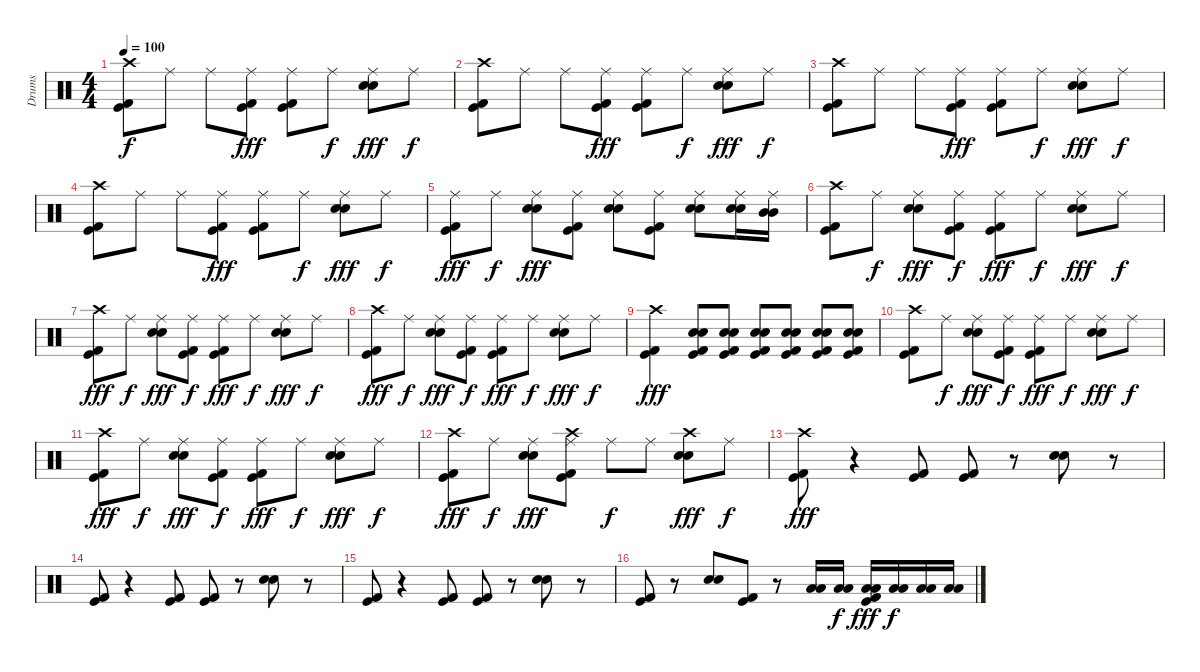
\track ("Drums" "Drums") {instrument percussion}
\staff {score}
\articulation defaults
\ts (4 4)
\tempo 100
\clef neutral
\ks c
("Crash high (hit)" "Kick (hit) 2" "Kick (hit)").8{dy f} "Ride (middle)".8 "Ride (middle)".8 ("Ride (middle)" "Kick (hit) 2" "Kick (hit)").8{dy fff} ("Ride (middle)" "Kick (hit) 2" "Kick (hit)").8 "Ride (middle)".8{dy f} ("Ride (middle)" "Electric Snare (hit)" "Snare (hit) 2").8{dy fff} "Ride (middle)".8{dy f} |
("Crash high (hit)" "Kick (hit) 2" "Kick (hit)").8 "Ride (middle)".8 "Ride (middle)".8 ("Ride (middle)" "Kick (hit) 2" "Kick (hit)").8{dy fff} ("Ride (middle)" "Kick (hit) 2" "Kick (hit)").8 "Ride (middle)".8{dy f} ("Ride (middle)" "Electric Snare (hit)" "Snare (hit) 2").8{dy fff} "Ride (middle)".8{dy f} |
("Crash high (hit)" "Kick (hit) 2" "Kick (hit)").8 "Ride (middle)".8 "Ride (middle)".8 ("Ride (middle)" "Kick (hit) 2" "Kick (hit)").8{dy fff} ("Ride (middle)" "Kick (hit) 2" "Kick (hit)").8 "Ride (middle)".8{dy f} ("Ride (middle)" "Electric Snare (hit)" "Snare (hit) 2").8{dy fff} "Ride (middle)".8{dy f} |
("Crash high (hit)" "Kick (hit) 2" "Kick (hit)").8 "Ride (middle)".8 "Ride (middle)".8 ("Ride (middle)" "Kick (hit) 2" "Kick (hit)").8{dy fff} ("Ride (middle)" "Kick (hit) 2" "Kick (hit)").8 "Ride (middle)".8{dy f} ("Ride (middle)" "Electric Snare (hit)" "Snare (hit) 2").8{dy fff} "Ride (middle)".8{dy f} |
("Ride (middle)" "Kick (hit) 2" "Kick (hit)").8{dy fff} "Ride (middle)".8{dy f} ("Ride (middle)" "Electric Snare (hit)" "Snare (hit) 2").8{dy fff} ("Ride (middle)" "Kick (hit) 2" "Kick (hit)").8 ("Ride (middle)" "Electric Snare (hit)" "Electric Snare (hit)").8 ("Ride (middle)" "Kick (hit) 2" "Kick (hit)").8 ("Ride (middle)" "Electric Snare (hit)" "Snare (hit) 2").8 ("Ride (middle)" "Electric Snare (hit)" "Snare (hit) 2").16 ("Ride (middle)" "Mid Tom (hit)" "Mid Tom (hit)").16 |
("Crash high (hit)" "Kick (hit) 2" "Kick (hit)").8 "Ride (middle)".8{dy f} ("Ride (middle)" "Electric Snare (hit)" "Snare (hit) 2").8{dy fff} ("Ride (middle)" "Kick (hit) 2" "Kick (hit)").8{dy f} ("Ride (middle)" "Kick (hit) 2" "Kick (hit)").8{dy fff} "Ride (middle)".8{dy f} ("Ride (middle)" "Electric Snare (hit)" "Snare (hit) 2").8{dy fff} "Ride (middle)".8{dy f} |
("Crash high (hit)" "Kick (hit) 2" "Kick (hit)").8{dy fff} "Ride (middle)".8{dy f} ("Ride (middle)" "Electric Snare (hit)" "Snare (hit) 2").8{dy fff} ("Ride (middle)" "Kick (hit) 2" "Kick (hit)").8{dy f} ("Ride (middle)" "Kick (hit) 2" "Kick (hit)").8{dy fff} "Ride (middle)".8{dy f} ("Ride (middle)" "Electric Snare (hit)" "Snare (hit) 2").8{dy fff} "Ride (middle)".8{dy f} |
("Crash high (hit)" "Kick (hit) 2" "Kick (hit)").8{dy fff} "Ride (middle)".8{dy f} ("Ride (middle)" "Electric Snare (hit)" "Snare (hit) 2").8{dy fff} ("Ride (middle)" "Kick (hit) 2" "Kick (hit)").8{dy f} ("Ride (middle)" "Kick (hit) 2" "Kick (hit)").8{dy fff} "Ride (middle)".8{dy f} ("Ride (middle)" "Electric Snare (hit)" "Snare (hit) 2").8{dy fff} "Ride (middle)".8{dy f} |
("Crash high (hit)" "Kick (hit) 2" "Kick (hit)").4{dy fff} ("Electric Snare (hit)" "Snare (hit) 2" "Kick (hit) 2" "Kick (hit)").8 ("Electric Snare (hit)" "Snare (hit) 2" "Kick (hit) 2" "Kick (hit)").8 ("Electric Snare (hit)" "Snare (hit) 2" "Kick (hit) 2" "Kick (hit)").8 ("Electric Snare (hit)" "Snare (hit) 2" "Kick (hit) 2" "Kick (hit)").8 ("Electric Snare (hit)" "Snare (hit) 2" "Kick (hit) 2" "Kick (hit)").8 ("Electric Snare (hit)" "Snare (hit) 2" "Kick (hit) 2" "Kick (hit)").8 |
("Crash high (hit)" "Kick (hit) 2" "Kick (hit)").8 "Ride (middle)".8{dy f} ("Ride (middle)" "Electric Snare (hit)" "Snare (hit) 2").8{dy fff} ("Ride (middle)" "Kick (hit) 2" "Kick (hit)").8{dy f} ("Ride (middle)" "Kick (hit) 2" "Kick (hit)").8{dy fff} "Ride (middle)".8{dy f} ("Ride (middle)" "Electric Snare (hit)" "Snare (hit) 2").8{dy fff} "Ride (middle)".8{dy f} |
("Crash high (hit)" "Kick (hit) 2" "Kick (hit)").8{dy fff} "Ride (middle)".8{dy f} ("Ride (middle)" "Electric Snare (hit)" "Snare (hit) 2").8{dy fff} ("Ride (middle)" "Kick (hit) 2" "Kick (hit)").8{dy f} ("Ride (middle)" "Kick (hit) 2" "Kick (hit)").8{dy fff} "Ride (middle)".8{dy f} ("Ride (middle)" "Electric Snare (hit)" "Snare (hit) 2").8{dy fff} "Ride (middle)".8{dy f} |
("Crash high (hit)" "Kick (hit) 2" "Kick (hit)").8{dy fff} "Ride (middle)".8{dy f} ("Ride (middle)" "Electric Snare (hit)" "Snare (hit) 2").8{dy fff} ("Ride (middle)" "Crash high (hit)" "Kick (hit) 2" "Kick (hit)").8 "Ride (middle)".8{dy f} "Ride (middle)".8 ("Crash high (hit)" "Electric Snare (hit)" "Snare (hit) 2").8{dy fff} "Ride (middle)".8{dy f} |
("Crash high (hit)" "Kick (hit) 2" "Kick (hit)").8{dy fff} r.4 ("Kick (hit) 2" "Kick (hit)").8 ("Kick (hit) 2" "Kick (hit)").8 r.8 ("Electric Snare (hit)" "Electric Snare (hit)").8 r.8 |
("Kick (hit) 2" "Kick (hit)").8 r.4 ("Kick (hit) 2" "Kick (hit)").8 ("Kick (hit) 2" "Kick (hit)").8 r.8 ("Electric Snare (hit)" "Electric Snare (hit)").8 r.8 |
("Kick (hit) 2" "Kick (hit)").8 r.4 ("Kick (hit) 2" "Kick (hit)").8 ("Kick (hit) 2" "Kick (hit)").8 r.8 ("Electric Snare (hit)" "Electric Snare (hit)").8 r.8 |
("Kick (hit) 2" "Kick (hit)").8 r.8 ("Electric Snare (hit)" "Electric Snare (hit)").8 ("Kick (hit) 2" "Kick (hit)").8 r.8 ("Low Tom (hit)" "Low Tom (hit)").16 ("Low Tom (hit)" "Low Tom (hit)").16{dy f} ("Low Tom (hit)" "Low Tom (hit)" "Kick (hit) 2" "Kick (hit)").16{dy fff} ("Low Tom (hit)" "Low Tom (hit)").16{dy f} ("Low Tom (hit)" "Low Tom (hit)").16 ("Low Tom (hit)" "Low Tom (hit)").16
